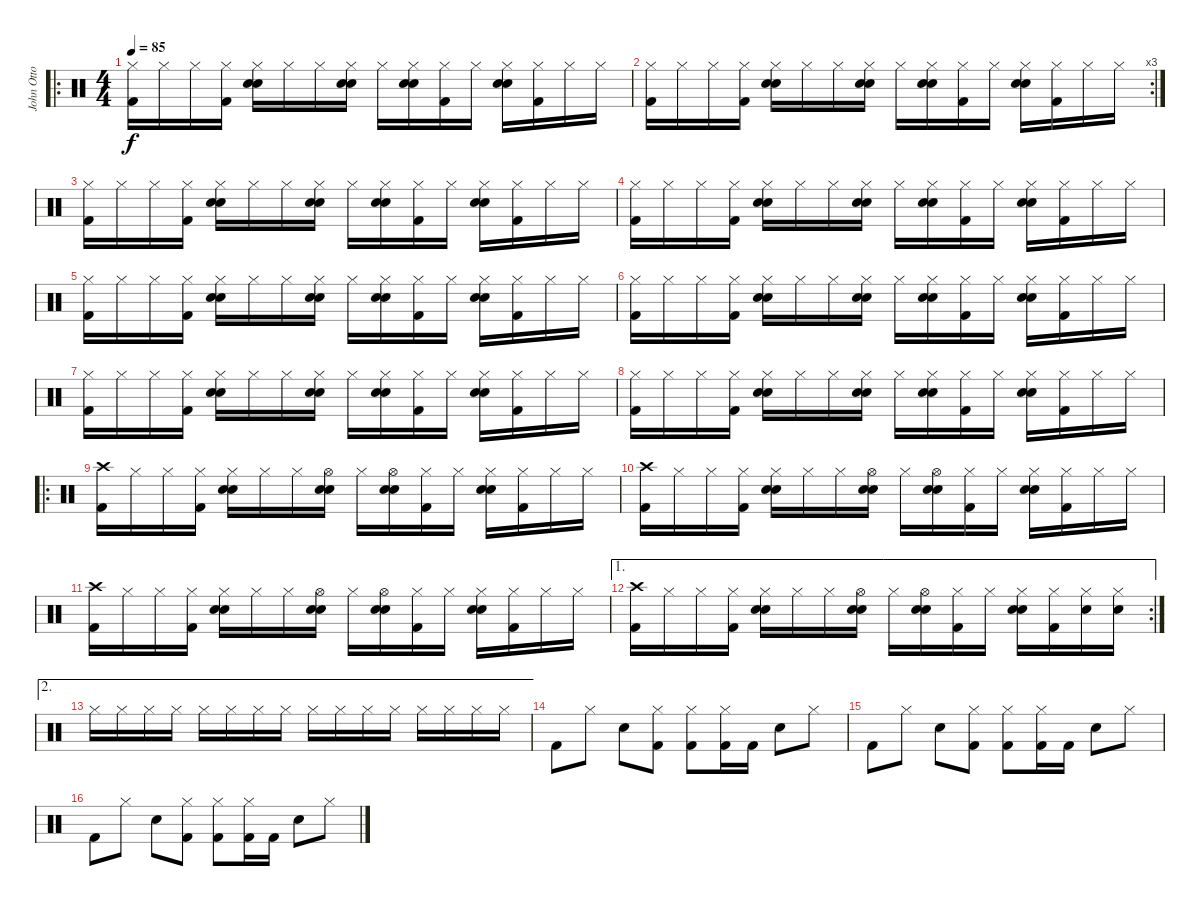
\track ("John Otto" "John Otto") {instrument percussion}
\staff {score}
\articulation defaults
\ro
\ts (4 4)
\tempo 85
\clef neutral
\ks c
("Hi-Hat (closed)" "Kick (hit) 2").16{dy f} "Hi-Hat (closed)".16 "Hi-Hat (closed)".16 ("Hi-Hat (closed)" "Kick (hit) 2").16 ("Hi-Hat (closed)" "Hand Clap (hit)" "Electric Snare (hit)").16 "Hi-Hat (closed)".16 "Hi-Hat (closed)".16 ("Hi-Hat (closed)" "Hand Clap (hit)" "Electric Snare (hit)").16 "Hi-Hat (closed)".16 ("Hi-Hat (closed)" "Hand Clap (hit)" "Electric Snare (hit)").16 ("Hi-Hat (closed)" "Kick (hit) 2").16 "Hi-Hat (closed)".16 ("Hi-Hat (closed)" "Hand Clap (hit)" "Electric Snare (hit)").16 ("Hi-Hat (closed)" "Kick (hit) 2").16 "Hi-Hat (closed)".16 "Hi-Hat (closed)".16 |
\rc 3
("Hi-Hat (closed)" "Kick (hit) 2").16 "Hi-Hat (closed)".16 "Hi-Hat (closed)".16 ("Hi-Hat (closed)" "Kick (hit) 2").16 ("Hi-Hat (closed)" "Hand Clap (hit)" "Electric Snare (hit)").16 "Hi-Hat (closed)".16 "Hi-Hat (closed)".16 ("Hi-Hat (closed)" "Hand Clap (hit)" "Electric Snare (hit)").16 "Hi-Hat (closed)".16 ("Hi-Hat (closed)" "Hand Clap (hit)" "Electric Snare (hit)").16 ("Hi-Hat (closed)" "Kick (hit) 2").16 "Hi-Hat (closed)".16 ("Hi-Hat (closed)" "Hand Clap (hit)" "Electric Snare (hit)").16 ("Hi-Hat (closed)" "Kick (hit) 2").16 "Hi-Hat (closed)".16 "Hi-Hat (closed)".16 |
("Hi-Hat (closed)" "Kick (hit) 2").16 "Hi-Hat (closed)".16 "Hi-Hat (closed)".16 ("Hi-Hat (closed)" "Kick (hit) 2").16 ("Hi-Hat (closed)" "Hand Clap (hit)" "Electric Snare (hit)").16 "Hi-Hat (closed)".16 "Hi-Hat (closed)".16 ("Hi-Hat (closed)" "Hand Clap (hit)" "Electric Snare (hit)").16 "Hi-Hat (closed)".16 ("Hi-Hat (closed)" "Hand Clap (hit)" "Electric Snare (hit)").16 ("Hi-Hat (closed)" "Kick (hit) 2").16 "Hi-Hat (closed)".16 ("Hi-Hat (closed)" "Hand Clap (hit)" "Electric Snare (hit)").16 ("Hi-Hat (closed)" "Kick (hit) 2").16 "Hi-Hat (closed)".16 "Hi-Hat (closed)".16 |
("Hi-Hat (closed)" "Kick (hit) 2").16 "Hi-Hat (closed)".16 "Hi-Hat (closed)".16 ("Hi-Hat (closed)" "Kick (hit) 2").16 ("Hi-Hat (closed)" "Hand Clap (hit)" "Electric Snare (hit)").16 "Hi-Hat (closed)".16 "Hi-Hat (closed)".16 ("Hi-Hat (closed)" "Hand Clap (hit)" "Electric Snare (hit)").16 "Hi-Hat (closed)".16 ("Hi-Hat (closed)" "Hand Clap (hit)" "Electric Snare (hit)").16 ("Hi-Hat (closed)" "Kick (hit) 2").16 "Hi-Hat (closed)".16 ("Hi-Hat (closed)" "Hand Clap (hit)" "Electric Snare (hit)").16 ("Hi-Hat (closed)" "Kick (hit) 2").16 "Hi-Hat (closed)".16 "Hi-Hat (closed)".16 |
("Hi-Hat (closed)" "Kick (hit) 2").16 "Hi-Hat (closed)".16 "Hi-Hat (closed)".16 ("Hi-Hat (closed)" "Kick (hit) 2").16 ("Hi-Hat (closed)" "Hand Clap (hit)" "Electric Snare (hit)").16 "Hi-Hat (closed)".16 "Hi-Hat (closed)".16 ("Hi-Hat (closed)" "Hand Clap (hit)" "Electric Snare (hit)").16 "Hi-Hat (closed)".16 ("Hi-Hat (closed)" "Hand Clap (hit)" "Electric Snare (hit)").16 ("Hi-Hat (closed)" "Kick (hit) 2").16 "Hi-Hat (closed)".16 ("Hi-Hat (closed)" "Hand Clap (hit)" "Electric Snare (hit)").16 ("Hi-Hat (closed)" "Kick (hit) 2").16 "Hi-Hat (closed)".16 "Hi-Hat (closed)".16 |
("Hi-Hat (closed)" "Kick (hit) 2").16 "Hi-Hat (closed)".16 "Hi-Hat (closed)".16 ("Hi-Hat (closed)" "Kick (hit) 2").16 ("Hi-Hat (closed)" "Hand Clap (hit)" "Electric Snare (hit)").16 "Hi-Hat (closed)".16 "Hi-Hat (closed)".16 ("Hi-Hat (closed)" "Hand Clap (hit)" "Electric Snare (hit)").16 "Hi-Hat (closed)".16 ("Hi-Hat (closed)" "Hand Clap (hit)" "Electric Snare (hit)").16 ("Hi-Hat (closed)" "Kick (hit) 2").16 "Hi-Hat (closed)".16 ("Hi-Hat (closed)" "Hand Clap (hit)" "Electric Snare (hit)").16 ("Hi-Hat (closed)" "Kick (hit) 2").16 "Hi-Hat (closed)".16 "Hi-Hat (closed)".16 |
("Hi-Hat (closed)" "Kick (hit) 2").16 "Hi-Hat (closed)".16 "Hi-Hat (closed)".16 ("Hi-Hat (closed)" "Kick (hit) 2").16 ("Hi-Hat (closed)" "Hand Clap (hit)" "Electric Snare (hit)").16 "Hi-Hat (closed)".16 "Hi-Hat (closed)".16 ("Hi-Hat (closed)" "Hand Clap (hit)" "Electric Snare (hit)").16 "Hi-Hat (closed)".16 ("Hi-Hat (closed)" "Hand Clap (hit)" "Electric Snare (hit)").16 ("Hi-Hat (closed)" "Kick (hit) 2").16 "Hi-Hat (closed)".16 ("Hi-Hat (closed)" "Hand Clap (hit)" "Electric Snare (hit)").16 ("Hi-Hat (closed)" "Kick (hit) 2").16 "Hi-Hat (closed)".16 "Hi-Hat (closed)".16 |
("Hi-Hat (closed)" "Kick (hit) 2").16 "Hi-Hat (closed)".16 "Hi-Hat (closed)".16 ("Hi-Hat (closed)" "Kick (hit) 2").16 ("Hi-Hat (closed)" "Hand Clap (hit)" "Electric Snare (hit)").16 "Hi-Hat (closed)".16 "Hi-Hat (closed)".16 ("Hi-Hat (closed)" "Hand Clap (hit)" "Electric Snare (hit)").16 "Hi-Hat (closed)".16 ("Hi-Hat (closed)" "Hand Clap (hit)" "Electric Snare (hit)").16 ("Hi-Hat (closed)" "Kick (hit) 2").16 "Hi-Hat (closed)".16 ("Hi-Hat (closed)" "Hand Clap (hit)" "Electric Snare (hit)").16 ("Hi-Hat (closed)" "Kick (hit) 2").16 "Hi-Hat (closed)".16 "Hi-Hat (closed)".16 |
\ro
("Crash high (hit)" "Kick (hit) 2").16 "Hi-Hat (closed)".16 "Hi-Hat (closed)".16 ("Hi-Hat (closed)" "Kick (hit) 2").16 ("Hi-Hat (closed)" "Hand Clap (hit)" "Electric Snare (hit)").16 "Hi-Hat (closed)".16 "Hi-Hat (closed)".16 ("Hi-Hat (open)" "Hand Clap (hit)" "Electric Snare (hit)").16 "Hi-Hat (closed)".16 ("Hi-Hat (open)" "Hand Clap (hit)" "Electric Snare (hit)").16 ("Hi-Hat (closed)" "Kick (hit) 2").16 "Hi-Hat (closed)".16 ("Hi-Hat (closed)" "Hand Clap (hit)" "Electric Snare (hit)").16 ("Hi-Hat (closed)" "Kick (hit) 2").16 "Hi-Hat (closed)".16 "Hi-Hat (closed)".16 |
("Crash high (hit)" "Kick (hit) 2").16 "Hi-Hat (closed)".16 "Hi-Hat (closed)".16 ("Hi-Hat (closed)" "Kick (hit) 2").16 ("Hi-Hat (closed)" "Hand Clap (hit)" "Electric Snare (hit)").16 "Hi-Hat (closed)".16 "Hi-Hat (closed)".16 ("Hi-Hat (open)" "Hand Clap (hit)" "Electric Snare (hit)").16 "Hi-Hat (closed)".16 ("Hi-Hat (open)" "Hand Clap (hit)" "Electric Snare (hit)").16 ("Hi-Hat (closed)" "Kick (hit) 2").16 "Hi-Hat (closed)".16 ("Hi-Hat (closed)" "Hand Clap (hit)" "Electric Snare (hit)").16 ("Hi-Hat (closed)" "Kick (hit) 2").16 "Hi-Hat (closed)".16 "Hi-Hat (closed)".16 |
("Crash high (hit)" "Kick (hit) 2").16 "Hi-Hat (closed)".16 "Hi-Hat (closed)".16 ("Hi-Hat (closed)" "Kick (hit) 2").16 ("Hi-Hat (closed)" "Hand Clap (hit)" "Electric Snare (hit)").16 "Hi-Hat (closed)".16 "Hi-Hat (closed)".16 ("Hi-Hat (open)" "Hand Clap (hit)" "Electric Snare (hit)").16 "Hi-Hat (closed)".16 ("Hi-Hat (open)" "Hand Clap (hit)" "Electric Snare (hit)").16 ("Hi-Hat (closed)" "Kick (hit) 2").16 "Hi-Hat (closed)".16 ("Hi-Hat (closed)" "Hand Clap (hit)" "Electric Snare (hit)").16 ("Hi-Hat (closed)" "Kick (hit) 2").16 "Hi-Hat (closed)".16 "Hi-Hat (closed)".16 |
\ae 1
\rc 2
("Crash high (hit)" "Kick (hit) 2").16 "Hi-Hat (closed)".16 "Hi-Hat (closed)".16 ("Hi-Hat (closed)" "Kick (hit) 2").16 ("Hi-Hat (closed)" "Hand Clap (hit)" "Electric Snare (hit)").16 "Hi-Hat (closed)".16 "Hi-Hat (closed)".16 ("Hi-Hat (open)" "Hand Clap (hit)" "Electric Snare (hit)").16 "Hi-Hat (closed)".16 ("Hi-Hat (open)" "Hand Clap (hit)" "Electric Snare (hit)").16 ("Hi-Hat (closed)" "Kick (hit) 2").16 "Hi-Hat (closed)".16 ("Hi-Hat (closed)" "Hand Clap (hit)" "Electric Snare (hit)").16 ("Hi-Hat (closed)" "Kick (hit) 2").16 ("Hi-Hat (closed)" "Electric Snare (hit)").16 ("Hi-Hat (closed)" "Electric Snare (hit)").16 |
\ae 2 "Hi-Hat (closed)".16 "Hi-Hat (closed)".16 "Hi-Hat (closed)".16 "Hi-Hat (closed)".16 "Hi-Hat (closed)".16 "Hi-Hat (closed)".16 "Hi-Hat (closed)".16 "Hi-Hat (closed)".16 "Hi-Hat (closed)".16 "Hi-Hat (closed)".16 "Hi-Hat (closed)".16 "Hi-Hat (closed)".16 "Hi-Hat (closed)".16 "Hi-Hat (closed)".16 "Hi-Hat (closed)".16 "Hi-Hat (closed)".16
|
"Kick (hit) 2".8 "Hi-Hat (closed)".8 "Electric Snare (hit)".8 ("Hi-Hat (closed)" "Kick (hit) 2").8 ("Hi-Hat (closed)" "Kick (hit) 2").8 ("Hi-Hat (closed)" "Kick (hit) 2").16 "Kick (hit) 2".16 "Electric Snare (hit)".8 "Hi-Hat (closed)".8 |
"Kick (hit) 2".8 "Hi-Hat (closed)".8 "Electric Snare (hit)".8 ("Hi-Hat (closed)" "Kick (hit) 2").8 ("Hi-Hat (closed)" "Kick (hit) 2").8 ("Hi-Hat (closed)" "Kick (hit) 2").16 "Kick (hit) 2".16 "Electric Snare (hit)".8 "Hi-Hat (closed)".8 |
"Kick (hit) 2".8 "Hi-Hat (closed)".8 "Electric Snare (hit)".8 ("Hi-Hat (closed)" "Kick (hit) 2").8 ("Hi-Hat (closed)" "Kick (hit) 2").8 ("Hi-Hat (closed)" "Kick (hit) 2").16 "Kick (hit) 2".16 "Electric Snare (hit)".8 "Hi-Hat (closed)".8
